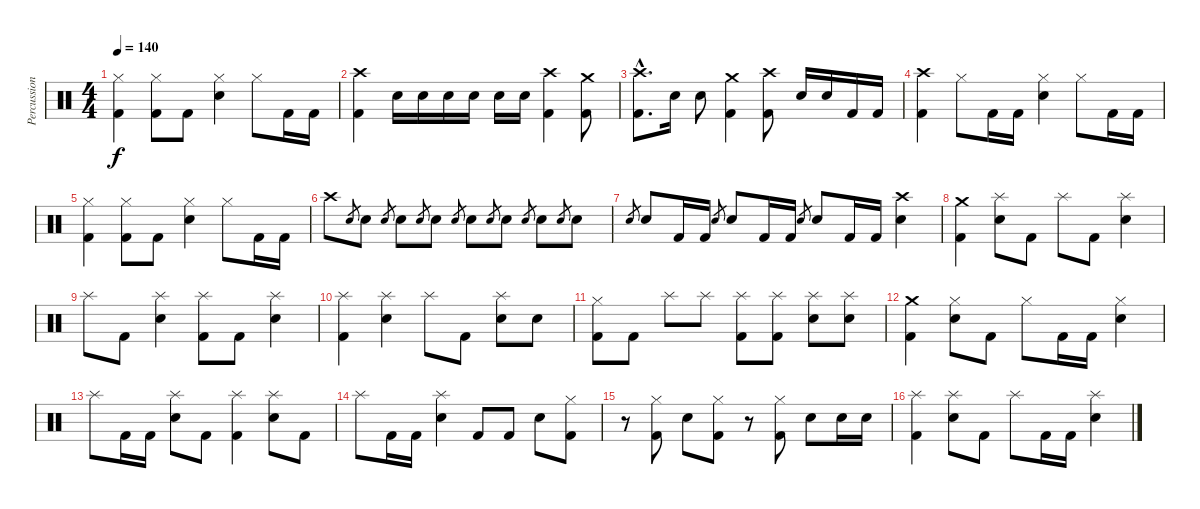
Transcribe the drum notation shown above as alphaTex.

\track ("Percussion" "Percussion") {instrument percussion}
\staff {score}
\articulation defaults
\ts (4 4)
\tempo 140
\clef neutral
\ks c
("Kick (hit) 2" "Hi-Hat (closed)").4{dy f} ("Kick (hit) 2" "Hi-Hat (closed)").8 "Kick (hit) 2".8 ("Snare (hit) 2" "Hi-Hat (closed)").4 "Hi-Hat (closed)".8 "Kick (hit) 2".16 "Kick (hit) 2".16 |
("Kick (hit) 2" "Crash high (hit)").4 "Snare (hit) 2".16 "Snare (hit) 2".16 "Snare (hit) 2".16 "Snare (hit) 2".16 "Snare (hit) 2".16 "Snare (hit) 2".16 ("Kick (hit) 2" "Crash high (hit)").4 ("Kick (hit) 2" "Crash medium (hit)").8 |
("Kick (hit) 2"{hac} "Crash high (hit)"{hac}).8{d} "Snare (hit) 2".16 "Snare (hit) 2".8 ("Kick (hit) 2" "Crash medium (hit)").4 ("Kick (hit) 2" "Crash high (hit)").8 "Snare (hit) 2".16 "Snare (hit) 2".16 "Kick (hit) 2".16 "Kick (hit) 2".16 |
("Kick (hit) 2" "Crash high (hit)").4 "Hi-Hat (closed)".8 "Kick (hit) 2".16 "Kick (hit) 2".16 ("Snare (hit) 2" "Hi-Hat (closed)").4 "Hi-Hat (closed)".8 "Kick (hit) 2".16 "Kick (hit) 2".16 |
("Kick (hit) 2" "Hi-Hat (closed)").4 ("Kick (hit) 2" "Hi-Hat (closed)").8 "Kick (hit) 2".8 ("Snare (hit) 2" "Hi-Hat (closed)").4 "Hi-Hat (closed)".8 "Kick (hit) 2".16 "Kick (hit) 2".16 |
"Crash high (hit)".8 "Snare (hit) 2".8{gr} "Snare (hit) 2".8 "Snare (hit) 2".8{gr} "Snare (hit) 2".8 "Snare (hit) 2".8{gr} "Snare (hit) 2".8 "Snare (hit) 2".8{gr} "Snare (hit) 2".8 "Snare (hit) 2".8{gr} "Snare (hit) 2".8 "Snare (hit) 2".8{gr} "Snare (hit) 2".8 "Snare (hit) 2".8{gr} "Snare (hit) 2".8 |
"Snare (hit) 2".8{gr} "Snare (hit) 2".8 "Kick (hit) 2".16 "Kick (hit) 2".16 "Snare (hit) 2".8{gr} "Snare (hit) 2".8 "Kick (hit) 2".16 "Kick (hit) 2".16 "Snare (hit) 2".8{gr} "Snare (hit) 2".8 "Kick (hit) 2".16 "Kick (hit) 2".16 ("Snare (hit) 2" "Crash high (hit)").4 |
("Kick (hit) 2" "Crash medium (hit)").4 ("Snare (hit) 2" "Splash (hit)").8 "Kick (hit) 2".8 "Splash (hit)".8 "Kick (hit) 2".8 ("Snare (hit) 2" "Splash (hit)").4 |
"Splash (hit)".8 "Kick (hit) 2".8 ("Snare (hit) 2" "Splash (hit)").4 ("Kick (hit) 2" "Splash (hit)").8 "Kick (hit) 2".8 ("Snare (hit) 2" "Splash (hit)").4 |
("Kick (hit) 2" "Splash (hit)").4 ("Snare (hit) 2" "Splash (hit)").4 "Splash (hit)".8 "Kick (hit) 2".8 ("Snare (hit) 2" "Splash (hit)").8 "Snare (hit) 2".8 |
("Kick (hit) 2" "Hi-Hat (closed)").8 "Kick (hit) 2".8 "Splash (hit)".8 "Splash (hit)".8 ("Kick (hit) 2" "Splash (hit)").8 ("Kick (hit) 2" "Splash (hit)").8 ("Snare (hit) 2" "Splash (hit)").8 ("Snare (hit) 2" "Splash (hit)").8 |
("Kick (hit) 2" "Crash medium (hit)").4 ("Snare (hit) 2" "Hi-Hat (closed)").8 "Kick (hit) 2".8 "Hi-Hat (closed)".8 "Kick (hit) 2".16 "Kick (hit) 2".16 ("Snare (hit) 2" "Hi-Hat (closed)").4 |
"Splash (hit)".8 "Kick (hit) 2".16 "Kick (hit) 2".16 ("Snare (hit) 2" "Splash (hit)").8 "Kick (hit) 2".8 ("Kick (hit) 2" "Splash (hit)").4 ("Snare (hit) 2" "Splash (hit)").8 "Kick (hit) 2".8 |
"Splash (hit)".8 "Kick (hit) 2".16 "Kick (hit) 2".16 ("Snare (hit) 2" "Splash (hit)").4 "Kick (hit) 2".8 "Kick (hit) 2".8 "Snare (hit) 2".8 ("Kick (hit) 2" "Hi-Hat (closed)").8 |
r.8 ("Kick (hit) 2" "Hi-Hat (closed)").8 "Snare (hit) 2".8 ("Kick (hit) 2" "Hi-Hat (closed)").8 r.8 ("Kick (hit) 2" "Hi-Hat (closed)").8 "Snare (hit) 2".8 "Snare (hit) 2".16 "Snare (hit) 2".16 |
("Kick (hit) 2" "Splash (hit)").4 ("Snare (hit) 2" "Splash (hit)").8 "Kick (hit) 2".8 "Splash (hit)".8 "Kick (hit) 2".16 "Kick (hit) 2".16 ("Snare (hit) 2" "Splash (hit)").4
